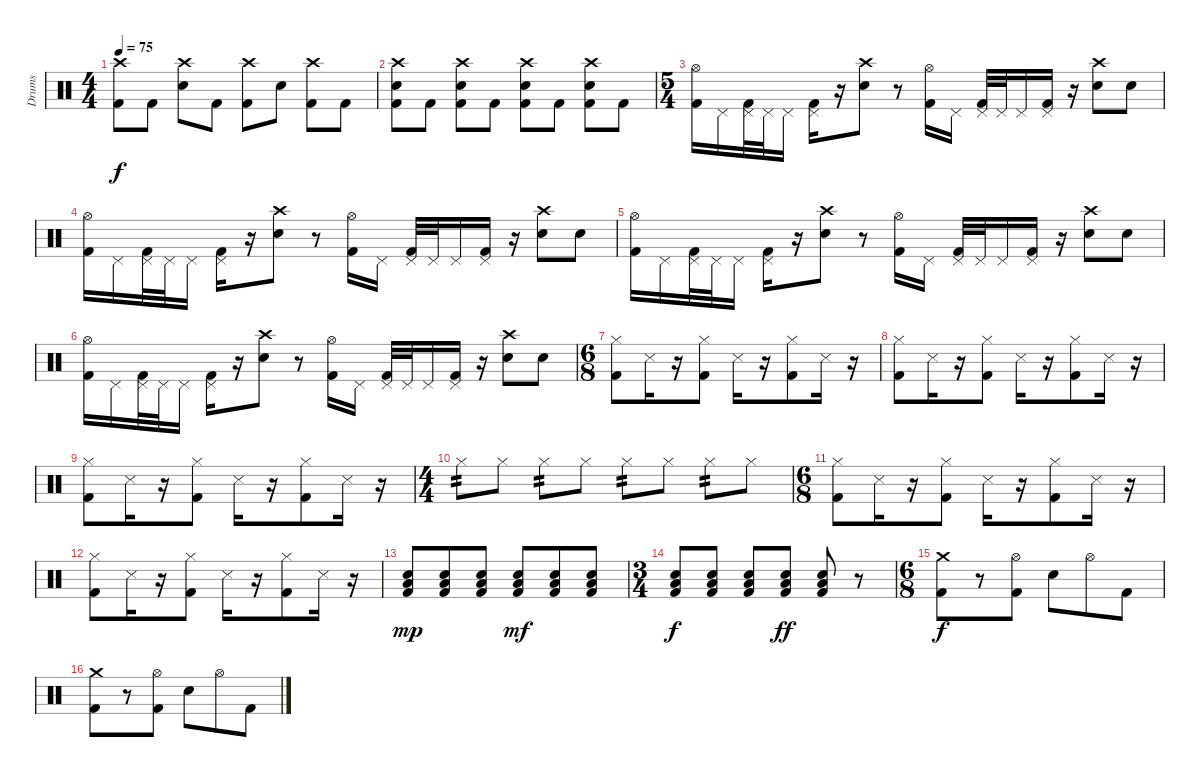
\track ("Drums" "Drums") {instrument percussion}
\staff {score}
\articulation defaults
\ts (4 4)
\tempo 75
\clef neutral
\ks c
("Crash high (hit)" "Kick (hit) 2").8{dy f} "Kick (hit) 2".8 ("Crash high (hit)" "Electric Snare (hit)").8 "Kick (hit) 2".8 ("Crash high (hit)" "Kick (hit) 2").8 "Electric Snare (hit)".8 ("Crash high (hit)" "Kick (hit) 2").8 "Kick (hit) 2".8 |
("Crash high (hit)" "Electric Snare (hit)" "Kick (hit) 2").8 "Kick (hit) 2".8 ("Crash high (hit)" "Electric Snare (hit)" "Kick (hit) 2").8 "Kick (hit) 2".8 ("Crash high (hit)" "Electric Snare (hit)" "Kick (hit) 2").8 "Kick (hit) 2".8 ("Crash high (hit)" "Electric Snare (hit)" "Kick (hit) 2").8 "Kick (hit) 2".8 |
\ts (5 4)
("Hi-Hat (open)" "Kick (hit) 2").16 "Pedal Hi-Hat (hit)".16 ("Pedal Hi-Hat (hit)" "Kick (hit) 2").32 "Pedal Hi-Hat (hit)".32 "Pedal Hi-Hat (hit)".16 ("Pedal Hi-Hat (hit)" "Kick (hit) 2").16 r.16 ("Crash high (hit)" "Electric Snare (hit)").8 r.8 ("Hi-Hat (open)" "Kick (hit) 2").16 "Pedal Hi-Hat (hit)".16 ("Pedal Hi-Hat (hit)" "Kick (hit) 2").32 "Pedal Hi-Hat (hit)".32 "Pedal Hi-Hat (hit)".16 ("Pedal Hi-Hat (hit)" "Kick (hit) 2").16 r.16 ("Crash high (hit)" "Electric Snare (hit)").8 "Electric Snare (hit)".8 |
("Hi-Hat (open)" "Kick (hit) 2").16 "Pedal Hi-Hat (hit)".16 ("Pedal Hi-Hat (hit)" "Kick (hit) 2").32 "Pedal Hi-Hat (hit)".32 "Pedal Hi-Hat (hit)".16 ("Pedal Hi-Hat (hit)" "Kick (hit) 2").16 r.16 ("Crash high (hit)" "Electric Snare (hit)").8 r.8 ("Hi-Hat (open)" "Kick (hit) 2").16 "Pedal Hi-Hat (hit)".16 ("Pedal Hi-Hat (hit)" "Kick (hit) 2").32 "Pedal Hi-Hat (hit)".32 "Pedal Hi-Hat (hit)".16 ("Pedal Hi-Hat (hit)" "Kick (hit) 2").16 r.16 ("Crash high (hit)" "Electric Snare (hit)").8 "Electric Snare (hit)".8 |
("Hi-Hat (open)" "Kick (hit) 2").16 "Pedal Hi-Hat (hit)".16 ("Pedal Hi-Hat (hit)" "Kick (hit) 2").32 "Pedal Hi-Hat (hit)".32 "Pedal Hi-Hat (hit)".16 ("Pedal Hi-Hat (hit)" "Kick (hit) 2").16 r.16 ("Crash high (hit)" "Electric Snare (hit)").8 r.8 ("Hi-Hat (open)" "Kick (hit) 2").16 "Pedal Hi-Hat (hit)".16 ("Pedal Hi-Hat (hit)" "Kick (hit) 2").32 "Pedal Hi-Hat (hit)".32 "Pedal Hi-Hat (hit)".16 ("Pedal Hi-Hat (hit)" "Kick (hit) 2").16 r.16 ("Crash high (hit)" "Electric Snare (hit)").8 "Electric Snare (hit)".8 |
("Hi-Hat (open)" "Kick (hit) 2").16 "Pedal Hi-Hat (hit)".16 ("Pedal Hi-Hat (hit)" "Kick (hit) 2").32 "Pedal Hi-Hat (hit)".32 "Pedal Hi-Hat (hit)".16 ("Pedal Hi-Hat (hit)" "Kick (hit) 2").16 r.16 ("Crash high (hit)" "Electric Snare (hit)").8 r.8 ("Hi-Hat (open)" "Kick (hit) 2").16 "Pedal Hi-Hat (hit)".16 ("Pedal Hi-Hat (hit)" "Kick (hit) 2").32 "Pedal Hi-Hat (hit)".32 "Pedal Hi-Hat (hit)".16 ("Pedal Hi-Hat (hit)" "Kick (hit) 2").16 r.16 ("Crash high (hit)" "Electric Snare (hit)").8 "Electric Snare (hit)".8 |
\ts (6 8)
("Hi-Hat (closed)" "Kick (hit) 2").8 "Snare (side stick) 3".16 r.16 ("Hi-Hat (closed)" "Kick (hit) 2").8 "Snare (side stick) 3".16 r.16 ("Hi-Hat (closed)" "Kick (hit) 2").8 "Snare (side stick) 3".16 r.16 |
("Hi-Hat (closed)" "Kick (hit) 2").8 "Snare (side stick) 3".16 r.16 ("Hi-Hat (closed)" "Kick (hit) 2").8 "Snare (side stick) 3".16 r.16 ("Hi-Hat (closed)" "Kick (hit) 2").8 "Snare (side stick) 3".16 r.16 |
("Hi-Hat (closed)" "Kick (hit) 2").8 "Snare (side stick) 3".16 r.16 ("Hi-Hat (closed)" "Kick (hit) 2").8 "Snare (side stick) 3".16 r.16 ("Hi-Hat (closed)" "Kick (hit) 2").8 "Snare (side stick) 3".16 r.16 |
\ts (4 4)
"Hi-Hat (closed)".8{tp 2} "Hi-Hat (closed)".8 "Hi-Hat (closed)".8{tp 2} "Hi-Hat (closed)".8 "Hi-Hat (closed)".8{tp 2} "Hi-Hat (closed)".8 "Hi-Hat (closed)".8{tp 2} "Hi-Hat (closed)".8 |
\ts (6 8)
("Hi-Hat (closed)" "Kick (hit) 2").8 "Snare (side stick) 3".16 r.16 ("Hi-Hat (closed)" "Kick (hit) 2").8 "Snare (side stick) 3".16 r.16 ("Hi-Hat (closed)" "Kick (hit) 2").8 "Snare (side stick) 3".16 r.16 |
("Hi-Hat (closed)" "Kick (hit) 2").8 "Snare (side stick) 3".16 r.16 ("Hi-Hat (closed)" "Kick (hit) 2").8 "Snare (side stick) 3".16 r.16 ("Hi-Hat (closed)" "Kick (hit) 2").8 "Snare (side stick) 3".16 r.16 |
("Low Tom (hit)" "Electric Snare (hit)" "Kick (hit) 2").8{dy mp} ("Low Tom (hit)" "Electric Snare (hit)" "Kick (hit) 2").8 ("Low Tom (hit)" "Electric Snare (hit)" "Kick (hit) 2").8 ("Low Tom (hit)" "Electric Snare (hit)" "Kick (hit) 2").8{dy mf} ("Low Tom (hit)" "Electric Snare (hit)" "Kick (hit) 2").8 ("Low Tom (hit)" "Electric Snare (hit)" "Kick (hit) 2").8 |
\ts (3 4)
("Low Tom (hit)" "Electric Snare (hit)" "Kick (hit) 2").8{dy f} ("Low Tom (hit)" "Electric Snare (hit)" "Kick (hit) 2").8 ("Low Tom (hit)" "Electric Snare (hit)" "Kick (hit) 2").8 ("Low Tom (hit)" "Electric Snare (hit)" "Kick (hit) 2").8{dy ff} ("Low Tom (hit)" "Electric Snare (hit)" "Kick (hit) 2").8 r.8 |
\ts (6 8)
("Crash medium (hit)" "Kick (hit) 2").8{dy f} r.8 ("Hi-Hat (open)" "Kick (hit) 2").8 "Electric Snare (hit)".8 "Hi-Hat (open)".8 "Kick (hit) 2".8 |
("Crash medium (hit)" "Kick (hit) 2").8 r.8 ("Hi-Hat (open)" "Kick (hit) 2").8 "Electric Snare (hit)".8 "Hi-Hat (open)".8 "Kick (hit) 2".8
